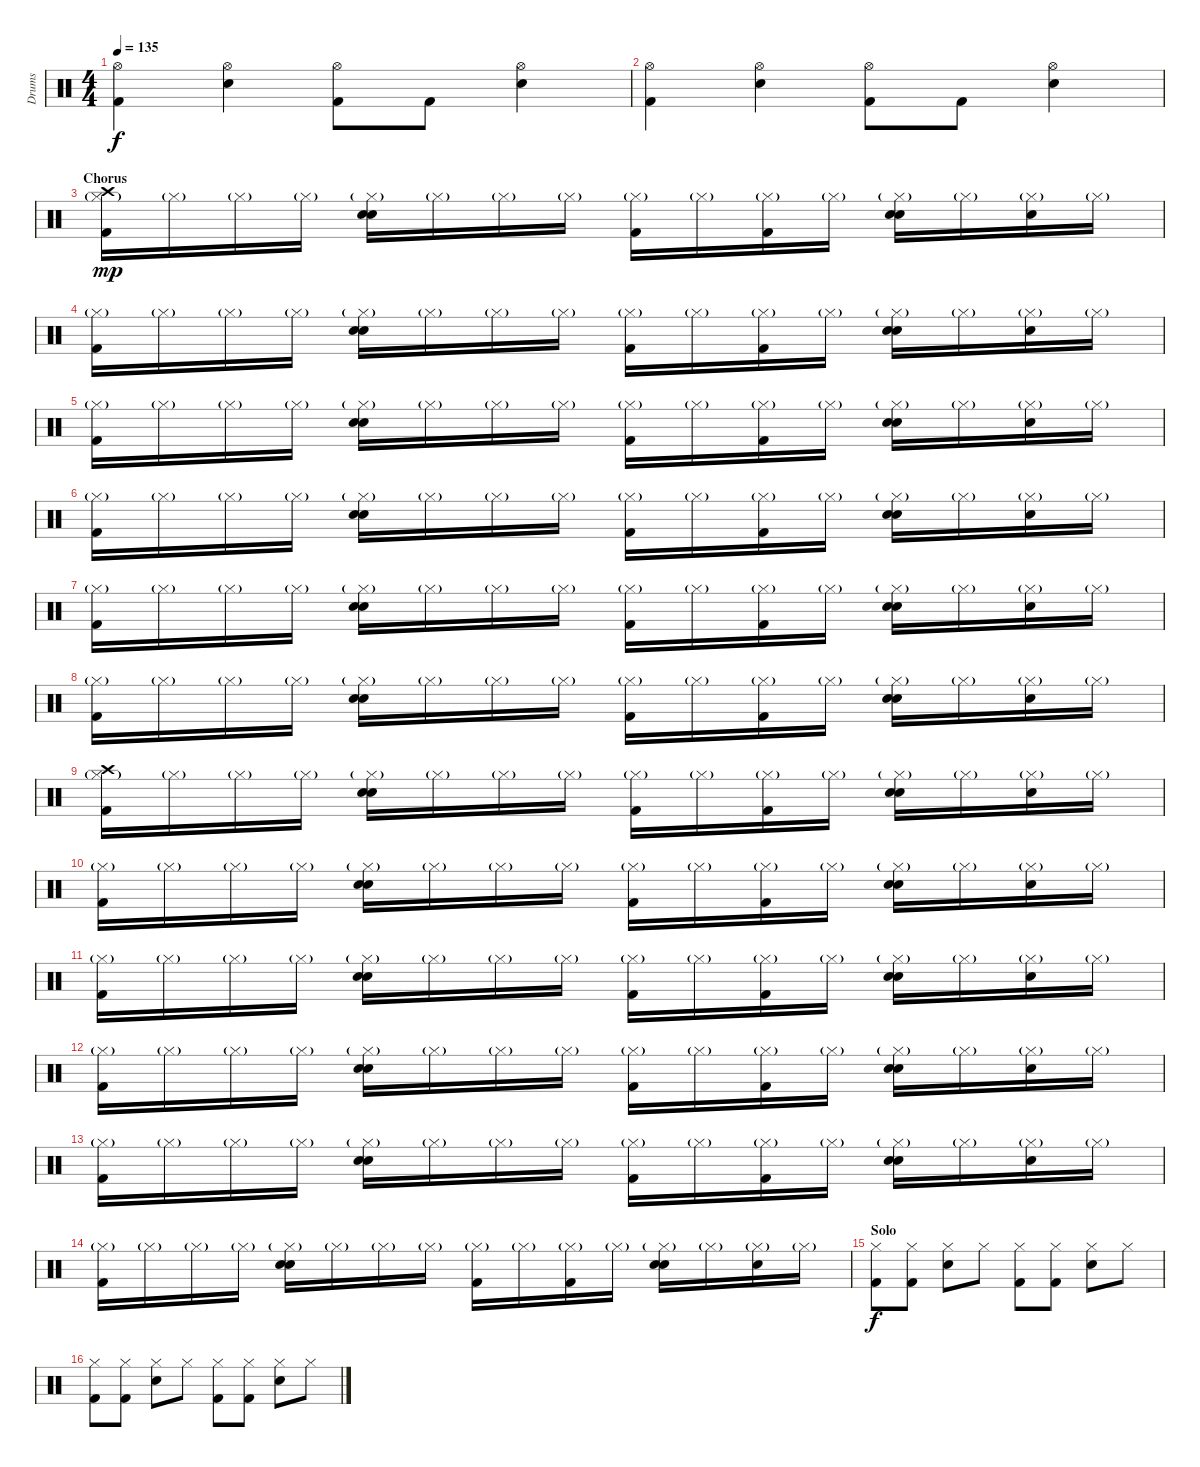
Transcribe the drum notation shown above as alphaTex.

\track ("Drums" "Drums") {instrument percussion}
\staff {score}
\articulation defaults
\ts (4 4)
\tempo 135
\clef neutral
\ks c
("Hi-Hat (open)" "Kick (hit) 2").4{dy f} ("Hi-Hat (open)" "Snare (hit) 2").4 ("Hi-Hat (open)" "Kick (hit) 2").8 "Kick (hit) 2".8 ("Hi-Hat (open)" "Snare (hit) 2").4 |
("Hi-Hat (open)" "Kick (hit) 2").4 ("Hi-Hat (open)" "Snare (hit) 2").4 ("Hi-Hat (open)" "Kick (hit) 2").8 "Kick (hit) 2".8 ("Hi-Hat (open)" "Snare (hit) 2").4 |
\section ("" "Chorus")
("Crash high (hit)" "Hi-Hat (closed)"{g} "Kick (hit) 2").16{dy mp} "Hi-Hat (closed)"{g}.16 "Hi-Hat (closed)"{g}.16 "Hi-Hat (closed)"{g}.16 ("Hand Clap (hit)" "Hi-Hat (closed)"{g} "Snare (hit) 2").16 "Hi-Hat (closed)"{g}.16 "Hi-Hat (closed)"{g}.16 "Hi-Hat (closed)"{g}.16 ("Hi-Hat (closed)"{g} "Kick (hit) 2").16 "Hi-Hat (closed)"{g}.16 ("Hi-Hat (closed)"{g} "Kick (hit) 2").16 "Hi-Hat (closed)"{g}.16 ("Hand Clap (hit)" "Hi-Hat (closed)"{g} "Snare (hit) 2").16 "Hi-Hat (closed)"{g}.16 ("Hand Clap (hit)" "Hi-Hat (closed)"{g}).16 "Hi-Hat (closed)"{g}.16 |
("Hi-Hat (closed)"{g} "Kick (hit) 2").16 "Hi-Hat (closed)"{g}.16 "Hi-Hat (closed)"{g}.16 "Hi-Hat (closed)"{g}.16 ("Hand Clap (hit)" "Hi-Hat (closed)"{g} "Snare (hit) 2").16 "Hi-Hat (closed)"{g}.16 "Hi-Hat (closed)"{g}.16 "Hi-Hat (closed)"{g}.16 ("Hi-Hat (closed)"{g} "Kick (hit) 2").16 "Hi-Hat (closed)"{g}.16 ("Hi-Hat (closed)"{g} "Kick (hit) 2").16 "Hi-Hat (closed)"{g}.16 ("Hand Clap (hit)" "Hi-Hat (closed)"{g} "Snare (hit) 2").16 "Hi-Hat (closed)"{g}.16 ("Hand Clap (hit)" "Hi-Hat (closed)"{g}).16 "Hi-Hat (closed)"{g}.16 |
("Hi-Hat (closed)"{g} "Kick (hit) 2").16 "Hi-Hat (closed)"{g}.16 "Hi-Hat (closed)"{g}.16 "Hi-Hat (closed)"{g}.16 ("Hand Clap (hit)" "Hi-Hat (closed)"{g} "Snare (hit) 2").16 "Hi-Hat (closed)"{g}.16 "Hi-Hat (closed)"{g}.16 "Hi-Hat (closed)"{g}.16 ("Hi-Hat (closed)"{g} "Kick (hit) 2").16 "Hi-Hat (closed)"{g}.16 ("Hi-Hat (closed)"{g} "Kick (hit) 2").16 "Hi-Hat (closed)"{g}.16 ("Hand Clap (hit)" "Hi-Hat (closed)"{g} "Snare (hit) 2").16 "Hi-Hat (closed)"{g}.16 ("Hand Clap (hit)" "Hi-Hat (closed)"{g}).16 "Hi-Hat (closed)"{g}.16 |
("Hi-Hat (closed)"{g} "Kick (hit) 2").16 "Hi-Hat (closed)"{g}.16 "Hi-Hat (closed)"{g}.16 "Hi-Hat (closed)"{g}.16 ("Hand Clap (hit)" "Hi-Hat (closed)"{g} "Snare (hit) 2").16 "Hi-Hat (closed)"{g}.16 "Hi-Hat (closed)"{g}.16 "Hi-Hat (closed)"{g}.16 ("Hi-Hat (closed)"{g} "Kick (hit) 2").16 "Hi-Hat (closed)"{g}.16 ("Hi-Hat (closed)"{g} "Kick (hit) 2").16 "Hi-Hat (closed)"{g}.16 ("Hand Clap (hit)" "Hi-Hat (closed)"{g} "Snare (hit) 2").16 "Hi-Hat (closed)"{g}.16 ("Hand Clap (hit)" "Hi-Hat (closed)"{g}).16 "Hi-Hat (closed)"{g}.16 |
("Hi-Hat (closed)"{g} "Kick (hit) 2").16 "Hi-Hat (closed)"{g}.16 "Hi-Hat (closed)"{g}.16 "Hi-Hat (closed)"{g}.16 ("Hand Clap (hit)" "Hi-Hat (closed)"{g} "Snare (hit) 2").16 "Hi-Hat (closed)"{g}.16 "Hi-Hat (closed)"{g}.16 "Hi-Hat (closed)"{g}.16 ("Hi-Hat (closed)"{g} "Kick (hit) 2").16 "Hi-Hat (closed)"{g}.16 ("Hi-Hat (closed)"{g} "Kick (hit) 2").16 "Hi-Hat (closed)"{g}.16 ("Hand Clap (hit)" "Hi-Hat (closed)"{g} "Snare (hit) 2").16 "Hi-Hat (closed)"{g}.16 ("Hand Clap (hit)" "Hi-Hat (closed)"{g}).16 "Hi-Hat (closed)"{g}.16 |
("Hi-Hat (closed)"{g} "Kick (hit) 2").16 "Hi-Hat (closed)"{g}.16 "Hi-Hat (closed)"{g}.16 "Hi-Hat (closed)"{g}.16 ("Hand Clap (hit)" "Hi-Hat (closed)"{g} "Snare (hit) 2").16 "Hi-Hat (closed)"{g}.16 "Hi-Hat (closed)"{g}.16 "Hi-Hat (closed)"{g}.16 ("Hi-Hat (closed)"{g} "Kick (hit) 2").16 "Hi-Hat (closed)"{g}.16 ("Hi-Hat (closed)"{g} "Kick (hit) 2").16 "Hi-Hat (closed)"{g}.16 ("Hand Clap (hit)" "Hi-Hat (closed)"{g} "Snare (hit) 2").16 "Hi-Hat (closed)"{g}.16 ("Hand Clap (hit)" "Hi-Hat (closed)"{g}).16 "Hi-Hat (closed)"{g}.16 |
("Crash high (hit)" "Hi-Hat (closed)"{g} "Kick (hit) 2").16 "Hi-Hat (closed)"{g}.16 "Hi-Hat (closed)"{g}.16 "Hi-Hat (closed)"{g}.16 ("Hand Clap (hit)" "Hi-Hat (closed)"{g} "Snare (hit) 2").16 "Hi-Hat (closed)"{g}.16 "Hi-Hat (closed)"{g}.16 "Hi-Hat (closed)"{g}.16 ("Hi-Hat (closed)"{g} "Kick (hit) 2").16 "Hi-Hat (closed)"{g}.16 ("Hi-Hat (closed)"{g} "Kick (hit) 2").16 "Hi-Hat (closed)"{g}.16 ("Hand Clap (hit)" "Hi-Hat (closed)"{g} "Snare (hit) 2").16 "Hi-Hat (closed)"{g}.16 ("Hand Clap (hit)" "Hi-Hat (closed)"{g}).16 "Hi-Hat (closed)"{g}.16 |
("Hi-Hat (closed)"{g} "Kick (hit) 2").16 "Hi-Hat (closed)"{g}.16 "Hi-Hat (closed)"{g}.16 "Hi-Hat (closed)"{g}.16 ("Hand Clap (hit)" "Hi-Hat (closed)"{g} "Snare (hit) 2").16 "Hi-Hat (closed)"{g}.16 "Hi-Hat (closed)"{g}.16 "Hi-Hat (closed)"{g}.16 ("Hi-Hat (closed)"{g} "Kick (hit) 2").16 "Hi-Hat (closed)"{g}.16 ("Hi-Hat (closed)"{g} "Kick (hit) 2").16 "Hi-Hat (closed)"{g}.16 ("Hand Clap (hit)" "Hi-Hat (closed)"{g} "Snare (hit) 2").16 "Hi-Hat (closed)"{g}.16 ("Hand Clap (hit)" "Hi-Hat (closed)"{g}).16 "Hi-Hat (closed)"{g}.16 |
("Hi-Hat (closed)"{g} "Kick (hit) 2").16 "Hi-Hat (closed)"{g}.16 "Hi-Hat (closed)"{g}.16 "Hi-Hat (closed)"{g}.16 ("Hand Clap (hit)" "Hi-Hat (closed)"{g} "Snare (hit) 2").16 "Hi-Hat (closed)"{g}.16 "Hi-Hat (closed)"{g}.16 "Hi-Hat (closed)"{g}.16 ("Hi-Hat (closed)"{g} "Kick (hit) 2").16 "Hi-Hat (closed)"{g}.16 ("Hi-Hat (closed)"{g} "Kick (hit) 2").16 "Hi-Hat (closed)"{g}.16 ("Hand Clap (hit)" "Hi-Hat (closed)"{g} "Snare (hit) 2").16 "Hi-Hat (closed)"{g}.16 ("Hand Clap (hit)" "Hi-Hat (closed)"{g}).16 "Hi-Hat (closed)"{g}.16 |
("Hi-Hat (closed)"{g} "Kick (hit) 2").16 "Hi-Hat (closed)"{g}.16 "Hi-Hat (closed)"{g}.16 "Hi-Hat (closed)"{g}.16 ("Hand Clap (hit)" "Hi-Hat (closed)"{g} "Snare (hit) 2").16 "Hi-Hat (closed)"{g}.16 "Hi-Hat (closed)"{g}.16 "Hi-Hat (closed)"{g}.16 ("Hi-Hat (closed)"{g} "Kick (hit) 2").16 "Hi-Hat (closed)"{g}.16 ("Hi-Hat (closed)"{g} "Kick (hit) 2").16 "Hi-Hat (closed)"{g}.16 ("Hand Clap (hit)" "Hi-Hat (closed)"{g} "Snare (hit) 2").16 "Hi-Hat (closed)"{g}.16 ("Hand Clap (hit)" "Hi-Hat (closed)"{g}).16 "Hi-Hat (closed)"{g}.16 |
("Hi-Hat (closed)"{g} "Kick (hit) 2").16 "Hi-Hat (closed)"{g}.16 "Hi-Hat (closed)"{g}.16 "Hi-Hat (closed)"{g}.16 ("Hand Clap (hit)" "Hi-Hat (closed)"{g} "Snare (hit) 2").16 "Hi-Hat (closed)"{g}.16 "Hi-Hat (closed)"{g}.16 "Hi-Hat (closed)"{g}.16 ("Hi-Hat (closed)"{g} "Kick (hit) 2").16 "Hi-Hat (closed)"{g}.16 ("Hi-Hat (closed)"{g} "Kick (hit) 2").16 "Hi-Hat (closed)"{g}.16 ("Hand Clap (hit)" "Hi-Hat (closed)"{g} "Snare (hit) 2").16 "Hi-Hat (closed)"{g}.16 ("Hand Clap (hit)" "Hi-Hat (closed)"{g}).16 "Hi-Hat (closed)"{g}.16 |
("Hi-Hat (closed)"{g} "Kick (hit) 2").16 "Hi-Hat (closed)"{g}.16 "Hi-Hat (closed)"{g}.16 "Hi-Hat (closed)"{g}.16 ("Hand Clap (hit)" "Hi-Hat (closed)"{g} "Snare (hit) 2").16 "Hi-Hat (closed)"{g}.16 "Hi-Hat (closed)"{g}.16 "Hi-Hat (closed)"{g}.16 ("Hi-Hat (closed)"{g} "Kick (hit) 2").16 "Hi-Hat (closed)"{g}.16 ("Hi-Hat (closed)"{g} "Kick (hit) 2").16 "Hi-Hat (closed)"{g}.16 ("Hand Clap (hit)" "Hi-Hat (closed)"{g} "Snare (hit) 2").16 "Hi-Hat (closed)"{g}.16 ("Hand Clap (hit)" "Hi-Hat (closed)"{g}).16 "Hi-Hat (closed)"{g}.16 |
\section ("" "Solo")
("Hi-Hat (closed)" "Kick (hit) 2").8{dy f} ("Hi-Hat (closed)" "Kick (hit) 2").8 ("Hi-Hat (closed)" "Snare (hit) 2").8 "Hi-Hat (closed)".8 ("Hi-Hat (closed)" "Kick (hit) 2").8 ("Hi-Hat (closed)" "Kick (hit) 2").8 ("Hi-Hat (closed)" "Snare (hit) 2").8 "Hi-Hat (closed)".8 |
("Hi-Hat (closed)" "Kick (hit) 2").8 ("Hi-Hat (closed)" "Kick (hit) 2").8 ("Hi-Hat (closed)" "Snare (hit) 2").8 "Hi-Hat (closed)".8 ("Hi-Hat (closed)" "Kick (hit) 2").8 ("Hi-Hat (closed)" "Kick (hit) 2").8 ("Hi-Hat (closed)" "Snare (hit) 2").8 "Hi-Hat (closed)".8
